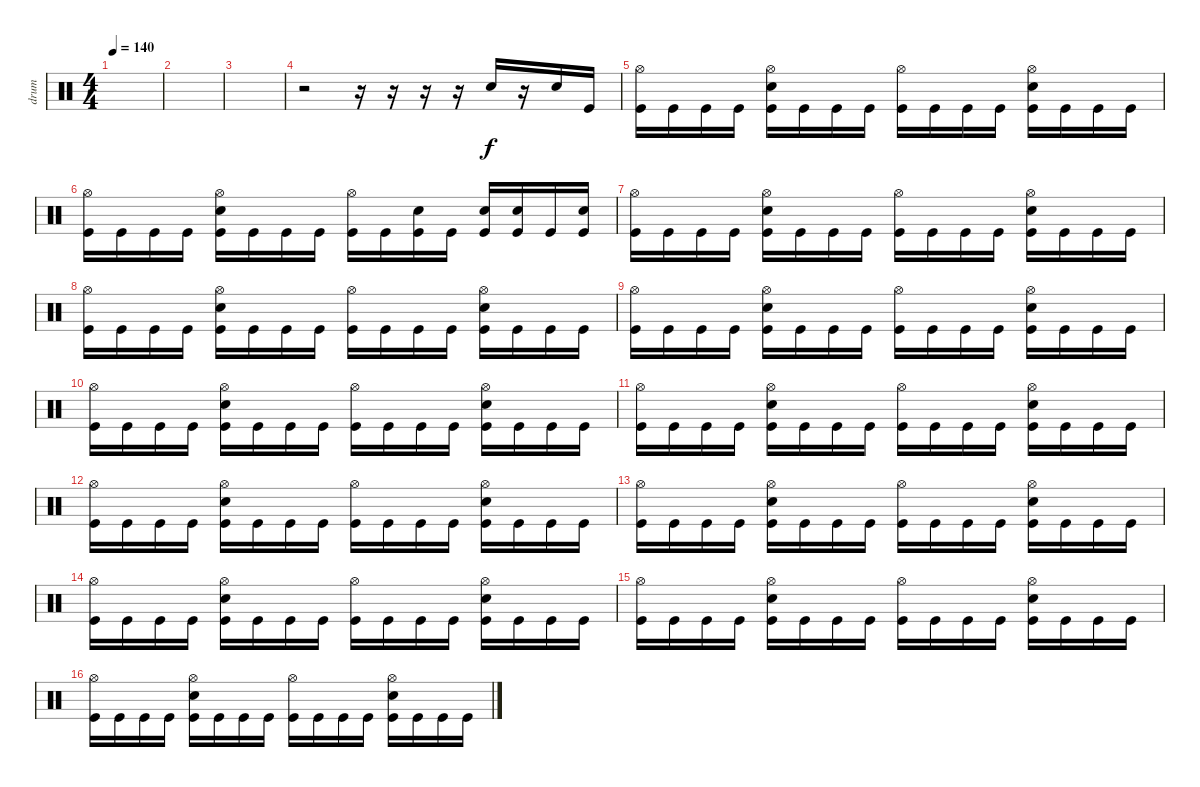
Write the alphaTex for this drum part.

\track ("drum" "drum") {instrument percussion}
\staff {score}
\articulation defaults
\ts (4 4)
\tempo 140
\clef neutral
\ks c
|
|
|
r.2 r.16 r.16 r.16 r.16 "Snare (hit) 2".16 r.16 "Snare (hit) 2".16 "Kick (hit)".16 |
("Hi-Hat (open)" "Kick (hit)").16 "Kick (hit)".16 "Kick (hit)".16 "Kick (hit)".16 ("Hi-Hat (open)" "Snare (hit) 2" "Kick (hit)").16 "Kick (hit)".16 "Kick (hit)".16 "Kick (hit)".16 ("Hi-Hat (open)" "Kick (hit)").16 "Kick (hit)".16 "Kick (hit)".16 "Kick (hit)".16 ("Hi-Hat (open)" "Snare (hit) 2" "Kick (hit)").16 "Kick (hit)".16 "Kick (hit)".16 "Kick (hit)".16 |
("Hi-Hat (open)" "Kick (hit)").16 "Kick (hit)".16 "Kick (hit)".16 "Kick (hit)".16 ("Hi-Hat (open)" "Snare (hit) 2" "Kick (hit)").16 "Kick (hit)".16 "Kick (hit)".16 "Kick (hit)".16 ("Hi-Hat (open)" "Kick (hit)").16 "Kick (hit)".16 ("Snare (hit) 2" "Kick (hit)").16 "Kick (hit)".16 ("Snare (hit) 2" "Kick (hit)").16 ("Snare (hit) 2" "Kick (hit)").16 "Kick (hit)".16 ("Snare (hit) 2" "Kick (hit)").16 |
("Hi-Hat (open)" "Kick (hit)").16 "Kick (hit)".16 "Kick (hit)".16 "Kick (hit)".16 ("Hi-Hat (open)" "Snare (hit) 2" "Kick (hit)").16 "Kick (hit)".16 "Kick (hit)".16 "Kick (hit)".16 ("Hi-Hat (open)" "Kick (hit)").16 "Kick (hit)".16 "Kick (hit)".16 "Kick (hit)".16 ("Hi-Hat (open)" "Snare (hit) 2" "Kick (hit)").16 "Kick (hit)".16 "Kick (hit)".16 "Kick (hit)".16 |
("Hi-Hat (open)" "Kick (hit)").16 "Kick (hit)".16 "Kick (hit)".16 "Kick (hit)".16 ("Hi-Hat (open)" "Snare (hit) 2" "Kick (hit)").16 "Kick (hit)".16 "Kick (hit)".16 "Kick (hit)".16 ("Hi-Hat (open)" "Kick (hit)").16 "Kick (hit)".16 "Kick (hit)".16 "Kick (hit)".16 ("Hi-Hat (open)" "Snare (hit) 2" "Kick (hit)").16 "Kick (hit)".16 "Kick (hit)".16 "Kick (hit)".16 |
("Hi-Hat (open)" "Kick (hit)").16 "Kick (hit)".16 "Kick (hit)".16 "Kick (hit)".16 ("Hi-Hat (open)" "Snare (hit) 2" "Kick (hit)").16 "Kick (hit)".16 "Kick (hit)".16 "Kick (hit)".16 ("Hi-Hat (open)" "Kick (hit)").16 "Kick (hit)".16 "Kick (hit)".16 "Kick (hit)".16 ("Hi-Hat (open)" "Snare (hit) 2" "Kick (hit)").16 "Kick (hit)".16 "Kick (hit)".16 "Kick (hit)".16 |
("Hi-Hat (open)" "Kick (hit)").16 "Kick (hit)".16 "Kick (hit)".16 "Kick (hit)".16 ("Hi-Hat (open)" "Snare (hit) 2" "Kick (hit)").16 "Kick (hit)".16 "Kick (hit)".16 "Kick (hit)".16 ("Hi-Hat (open)" "Kick (hit)").16 "Kick (hit)".16 "Kick (hit)".16 "Kick (hit)".16 ("Hi-Hat (open)" "Snare (hit) 2" "Kick (hit)").16 "Kick (hit)".16 "Kick (hit)".16 "Kick (hit)".16 |
("Hi-Hat (open)" "Kick (hit)").16 "Kick (hit)".16 "Kick (hit)".16 "Kick (hit)".16 ("Hi-Hat (open)" "Snare (hit) 2" "Kick (hit)").16 "Kick (hit)".16 "Kick (hit)".16 "Kick (hit)".16 ("Hi-Hat (open)" "Kick (hit)").16 "Kick (hit)".16 "Kick (hit)".16 "Kick (hit)".16 ("Hi-Hat (open)" "Snare (hit) 2" "Kick (hit)").16 "Kick (hit)".16 "Kick (hit)".16 "Kick (hit)".16 |
("Hi-Hat (open)" "Kick (hit)").16 "Kick (hit)".16 "Kick (hit)".16 "Kick (hit)".16 ("Hi-Hat (open)" "Snare (hit) 2" "Kick (hit)").16 "Kick (hit)".16 "Kick (hit)".16 "Kick (hit)".16 ("Hi-Hat (open)" "Kick (hit)").16 "Kick (hit)".16 "Kick (hit)".16 "Kick (hit)".16 ("Hi-Hat (open)" "Snare (hit) 2" "Kick (hit)").16 "Kick (hit)".16 "Kick (hit)".16 "Kick (hit)".16 |
("Hi-Hat (open)" "Kick (hit)").16 "Kick (hit)".16 "Kick (hit)".16 "Kick (hit)".16 ("Hi-Hat (open)" "Snare (hit) 2" "Kick (hit)").16 "Kick (hit)".16 "Kick (hit)".16 "Kick (hit)".16 ("Hi-Hat (open)" "Kick (hit)").16 "Kick (hit)".16 "Kick (hit)".16 "Kick (hit)".16 ("Hi-Hat (open)" "Snare (hit) 2" "Kick (hit)").16 "Kick (hit)".16 "Kick (hit)".16 "Kick (hit)".16 |
("Hi-Hat (open)" "Kick (hit)").16 "Kick (hit)".16 "Kick (hit)".16 "Kick (hit)".16 ("Hi-Hat (open)" "Snare (hit) 2" "Kick (hit)").16 "Kick (hit)".16 "Kick (hit)".16 "Kick (hit)".16 ("Hi-Hat (open)" "Kick (hit)").16 "Kick (hit)".16 "Kick (hit)".16 "Kick (hit)".16 ("Hi-Hat (open)" "Snare (hit) 2" "Kick (hit)").16 "Kick (hit)".16 "Kick (hit)".16 "Kick (hit)".16 |
("Hi-Hat (open)" "Kick (hit)").16 "Kick (hit)".16 "Kick (hit)".16 "Kick (hit)".16 ("Hi-Hat (open)" "Snare (hit) 2" "Kick (hit)").16 "Kick (hit)".16 "Kick (hit)".16 "Kick (hit)".16 ("Hi-Hat (open)" "Kick (hit)").16 "Kick (hit)".16 "Kick (hit)".16 "Kick (hit)".16 ("Hi-Hat (open)" "Snare (hit) 2" "Kick (hit)").16 "Kick (hit)".16 "Kick (hit)".16 "Kick (hit)".16 |
("Hi-Hat (open)" "Kick (hit)").16 "Kick (hit)".16 "Kick (hit)".16 "Kick (hit)".16 ("Hi-Hat (open)" "Snare (hit) 2" "Kick (hit)").16 "Kick (hit)".16 "Kick (hit)".16 "Kick (hit)".16 ("Hi-Hat (open)" "Kick (hit)").16 "Kick (hit)".16 "Kick (hit)".16 "Kick (hit)".16 ("Hi-Hat (open)" "Snare (hit) 2" "Kick (hit)").16 "Kick (hit)".16 "Kick (hit)".16 "Kick (hit)".16
